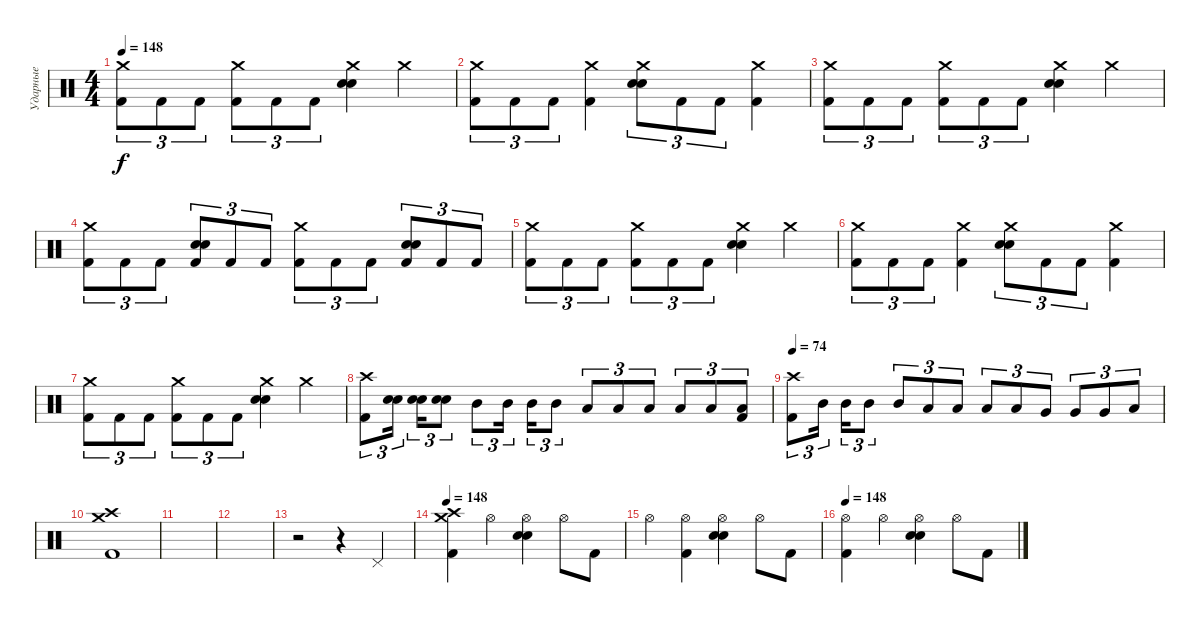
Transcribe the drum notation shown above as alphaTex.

\track ("Ударные" "Ударные") {instrument percussion}
\staff {score}
\articulation defaults
\ts (4 4)
\tempo 148
\clef neutral
\ks c
("Crash medium (hit)" "Kick (hit) 2").8{tu (3 2) dy f} "Kick (hit) 2".8{tu (3 2)} "Kick (hit) 2".8{tu (3 2)} ("Crash medium (hit)" "Kick (hit) 2").8{tu (3 2)} "Kick (hit) 2".8{tu (3 2)} "Kick (hit) 2".8{tu (3 2)} ("Crash medium (hit)" "Electric Snare (hit)" "Snare (hit) 2").4 "Crash medium (hit)".4 |
("Crash medium (hit)" "Kick (hit) 2").8{tu (3 2)} "Kick (hit) 2".8{tu (3 2)} "Kick (hit) 2".8{tu (3 2)} ("Crash medium (hit)" "Kick (hit) 2").4 ("Crash medium (hit)" "Electric Snare (hit)" "Snare (hit) 2").8{tu (3 2)} "Kick (hit) 2".8{tu (3 2)} "Kick (hit) 2".8{tu (3 2)} ("Crash medium (hit)" "Kick (hit) 2").4 |
("Crash medium (hit)" "Kick (hit) 2").8{tu (3 2)} "Kick (hit) 2".8{tu (3 2)} "Kick (hit) 2".8{tu (3 2)} ("Crash medium (hit)" "Kick (hit) 2").8{tu (3 2)} "Kick (hit) 2".8{tu (3 2)} "Kick (hit) 2".8{tu (3 2)} ("Crash medium (hit)" "Electric Snare (hit)" "Snare (hit) 2").4 "Crash medium (hit)".4 |
("Crash medium (hit)" "Kick (hit) 2").8{tu (3 2)} "Kick (hit) 2".8{tu (3 2)} "Kick (hit) 2".8{tu (3 2)} ("Electric Snare (hit)" "Snare (hit) 2" "Kick (hit) 2").8{tu (3 2)} "Kick (hit) 2".8{tu (3 2)} "Kick (hit) 2".8{tu (3 2)} ("Crash medium (hit)" "Kick (hit) 2").8{tu (3 2)} "Kick (hit) 2".8{tu (3 2)} "Kick (hit) 2".8{tu (3 2)} ("Electric Snare (hit)" "Snare (hit) 2" "Kick (hit) 2").8{tu (3 2)} "Kick (hit) 2".8{tu (3 2)} "Kick (hit) 2".8{tu (3 2)} |
("Crash medium (hit)" "Kick (hit) 2").8{tu (3 2)} "Kick (hit) 2".8{tu (3 2)} "Kick (hit) 2".8{tu (3 2)} ("Crash medium (hit)" "Kick (hit) 2").8{tu (3 2)} "Kick (hit) 2".8{tu (3 2)} "Kick (hit) 2".8{tu (3 2)} ("Crash medium (hit)" "Electric Snare (hit)" "Snare (hit) 2").4 "Crash medium (hit)".4 |
("Crash medium (hit)" "Kick (hit) 2").8{tu (3 2)} "Kick (hit) 2".8{tu (3 2)} "Kick (hit) 2".8{tu (3 2)} ("Crash medium (hit)" "Kick (hit) 2").4 ("Crash medium (hit)" "Electric Snare (hit)" "Snare (hit) 2").8{tu (3 2)} "Kick (hit) 2".8{tu (3 2)} "Kick (hit) 2".8{tu (3 2)} ("Crash medium (hit)" "Kick (hit) 2").4 |
("Crash medium (hit)" "Kick (hit) 2").8{tu (3 2)} "Kick (hit) 2".8{tu (3 2)} "Kick (hit) 2".8{tu (3 2)} ("Crash medium (hit)" "Kick (hit) 2").8{tu (3 2)} "Kick (hit) 2".8{tu (3 2)} "Kick (hit) 2".8{tu (3 2)} ("Crash medium (hit)" "Electric Snare (hit)" "Snare (hit) 2").4 "Crash medium (hit)".4 |
("Crash high (hit)" "Kick (hit) 2").8{tu (3 2)} ("Electric Snare (hit)" "Snare (hit) 2").16{tu (3 2) beam splitsecondary} ("Electric Snare (hit)" "Snare (hit) 2").16{tu (3 2)} ("Electric Snare (hit)" "Snare (hit) 2").8{tu (3 2)} "Mid Tom (hit)".8{tu (3 2)} "Mid Tom (hit)".16{tu (3 2) beam splitsecondary} "Mid Tom (hit)".16{tu (3 2)} "Mid Tom (hit)".8{tu (3 2)} "Low Tom (hit)".8{tu (3 2)} "Low Tom (hit)".8{tu (3 2)} "Low Tom (hit)".8{tu (3 2)} "Low Floor Tom (hit)".8{tu (3 2)} "Low Floor Tom (hit)".8{tu (3 2)} ("Low Floor Tom (hit)" "Kick (hit) 2").8{tu (3 2)} |
\tempo 74
("Crash high (hit)" "Kick (hit) 2").8{tu (3 2)} "Mid Tom (hit)".16{tu (3 2) beam splitsecondary} "Mid Tom (hit)".16{tu (3 2)} "Mid Tom (hit)".8{tu (3 2)} "Mid Tom (hit)".8{tu (3 2)} "Low Tom (hit)".8{tu (3 2)} "Low Tom (hit)".8{tu (3 2)} "Low Tom (hit)".8{tu (3 2)} "Low Tom (hit)".8{tu (3 2)} "Very Low Tom (hit)".8{tu (3 2)} "Very Low Tom (hit)".8{tu (3 2)} "Very Low Tom (hit)".8{tu (3 2)} "Low Floor Tom (hit)".8{tu (3 2)} |
("Crash medium (hit)" "Crash high (hit)" "Kick (hit) 2").1 |
|
|
r.2 r.4 "Pedal Hi-Hat (hit)".4 |
\tempo 148
("Crash high (hit)" "Crash medium (hit)" "Kick (hit) 2").4{volume 15} "Hi-Hat (open)".4 ("Hi-Hat (open)" "Snare (hit) 2" "Electric Snare (hit)").4 "Hi-Hat (open)".8 "Kick (hit) 2".8 |
"Hi-Hat (open)".4 ("Hi-Hat (open)" "Kick (hit) 2").4 ("Hi-Hat (open)" "Snare (hit) 2" "Electric Snare (hit)").4 "Hi-Hat (open)".8 "Kick (hit) 2".8 |
\tempo 148
("Hi-Hat (open)" "Kick (hit) 2").4 "Hi-Hat (open)".4 ("Hi-Hat (open)" "Snare (hit) 2" "Electric Snare (hit)").4 "Hi-Hat (open)".8 "Kick (hit) 2".8
